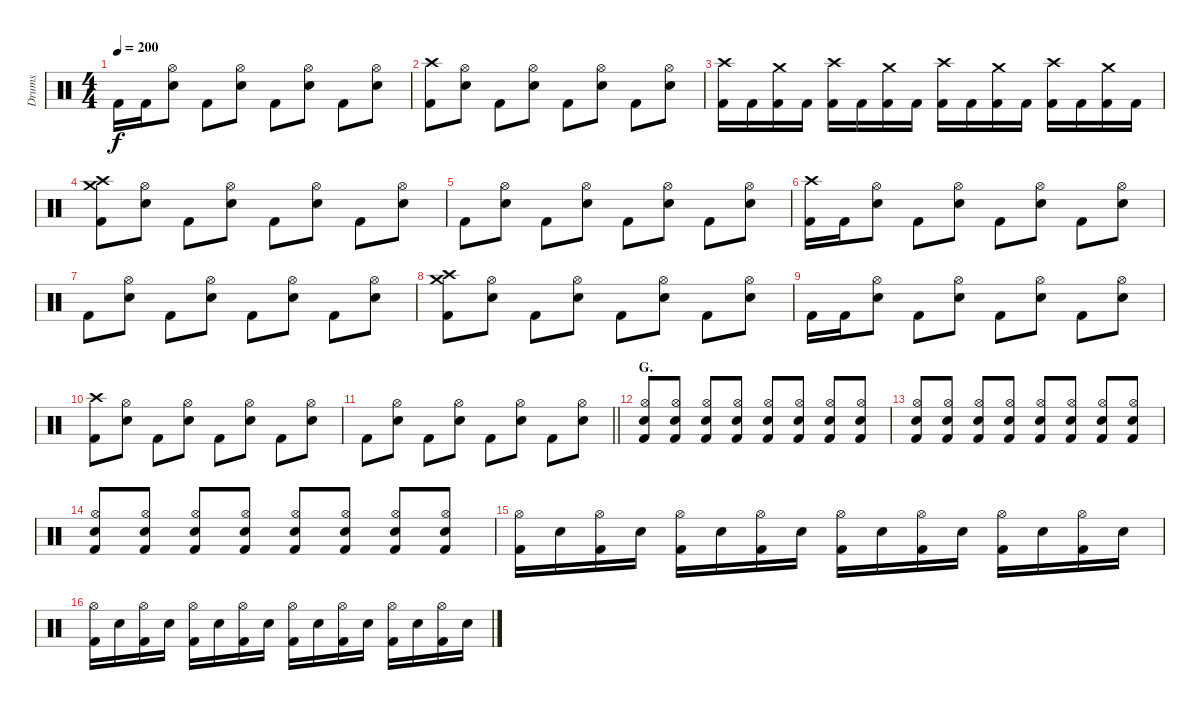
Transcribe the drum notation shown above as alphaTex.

\track ("Drums" "Drums") {instrument percussion}
\staff {score}
\articulation defaults
\ts (4 4)
\tempo 200
\clef neutral
\ks c "Kick (hit) 2".16{dy f} "Kick (hit) 2".16
("Hi-Hat (open)" "Electric Snare (hit)").8 "Kick (hit) 2".8 ("Hi-Hat (open)" "Electric Snare (hit)").8 "Kick (hit) 2".8 ("Hi-Hat (open)" "Electric Snare (hit)").8 "Kick (hit) 2".8 ("Hi-Hat (open)" "Electric Snare (hit)").8 |
("Crash high (hit)" "Kick (hit) 2").8 ("Hi-Hat (open)" "Electric Snare (hit)").8 "Kick (hit) 2".8 ("Hi-Hat (open)" "Electric Snare (hit)").8 "Kick (hit) 2".8 ("Hi-Hat (open)" "Electric Snare (hit)").8 "Kick (hit) 2".8 ("Hi-Hat (open)" "Electric Snare (hit)").8 |
("Crash high (hit)" "Kick (hit) 2").16 "Kick (hit) 2".16 ("Crash medium (hit)" "Kick (hit) 2").16 "Kick (hit) 2".16 ("Crash high (hit)" "Kick (hit) 2").16 "Kick (hit) 2".16 ("Crash medium (hit)" "Kick (hit) 2").16 "Kick (hit) 2".16 ("Crash high (hit)" "Kick (hit) 2").16 "Kick (hit) 2".16 ("Crash medium (hit)" "Kick (hit) 2").16 "Kick (hit) 2".16 ("Crash high (hit)" "Kick (hit) 2").16 "Kick (hit) 2".16 ("Crash medium (hit)" "Kick (hit) 2").16 "Kick (hit) 2".16 |
("Crash medium (hit)" "Crash high (hit)" "Kick (hit) 2").8 ("Hi-Hat (open)" "Electric Snare (hit)").8 "Kick (hit) 2".8 ("Hi-Hat (open)" "Electric Snare (hit)").8 "Kick (hit) 2".8 ("Hi-Hat (open)" "Electric Snare (hit)").8 "Kick (hit) 2".8 ("Hi-Hat (open)" "Electric Snare (hit)").8 |
"Kick (hit) 2".8 ("Hi-Hat (open)" "Electric Snare (hit)").8 "Kick (hit) 2".8 ("Hi-Hat (open)" "Electric Snare (hit)").8 "Kick (hit) 2".8 ("Hi-Hat (open)" "Electric Snare (hit)").8 "Kick (hit) 2".8 ("Hi-Hat (open)" "Electric Snare (hit)").8 |
("Crash high (hit)" "Kick (hit) 2").16 "Kick (hit) 2".16 ("Hi-Hat (open)" "Electric Snare (hit)").8 "Kick (hit) 2".8 ("Hi-Hat (open)" "Electric Snare (hit)").8 "Kick (hit) 2".8 ("Hi-Hat (open)" "Electric Snare (hit)").8 "Kick (hit) 2".8 ("Hi-Hat (open)" "Electric Snare (hit)").8 |
"Kick (hit) 2".8 ("Hi-Hat (open)" "Electric Snare (hit)").8 "Kick (hit) 2".8 ("Hi-Hat (open)" "Electric Snare (hit)").8 "Kick (hit) 2".8 ("Hi-Hat (open)" "Electric Snare (hit)").8 "Kick (hit) 2".8 ("Hi-Hat (open)" "Electric Snare (hit)").8 |
("Crash medium (hit)" "Crash high (hit)" "Kick (hit) 2").8 ("Hi-Hat (open)" "Electric Snare (hit)").8 "Kick (hit) 2".8 ("Hi-Hat (open)" "Electric Snare (hit)").8 "Kick (hit) 2".8 ("Hi-Hat (open)" "Electric Snare (hit)").8 "Kick (hit) 2".8 ("Hi-Hat (open)" "Electric Snare (hit)").8 |
"Kick (hit) 2".16 "Kick (hit) 2".16 ("Hi-Hat (open)" "Electric Snare (hit)").8 "Kick (hit) 2".8 ("Hi-Hat (open)" "Electric Snare (hit)").8 "Kick (hit) 2".8 ("Hi-Hat (open)" "Electric Snare (hit)").8 "Kick (hit) 2".8 ("Hi-Hat (open)" "Electric Snare (hit)").8 |
("Crash high (hit)" "Kick (hit) 2").8 ("Hi-Hat (open)" "Electric Snare (hit)").8 "Kick (hit) 2".8 ("Hi-Hat (open)" "Electric Snare (hit)").8 "Kick (hit) 2".8 ("Hi-Hat (open)" "Electric Snare (hit)").8 "Kick (hit) 2".8 ("Hi-Hat (open)" "Electric Snare (hit)").8 |
\barLineRight lightlight "Kick (hit) 2".8
("Hi-Hat (open)" "Electric Snare (hit)").8 "Kick (hit) 2".8 ("Hi-Hat (open)" "Electric Snare (hit)").8 "Kick (hit) 2".8 ("Hi-Hat (open)" "Electric Snare (hit)").8 "Kick (hit) 2".8 ("Hi-Hat (open)" "Electric Snare (hit)").8 |
\section ("" "G.")
("Hi-Hat (open)" "Electric Snare (hit)" "Kick (hit) 2").8 ("Hi-Hat (open)" "Electric Snare (hit)" "Kick (hit) 2").8 ("Hi-Hat (open)" "Electric Snare (hit)" "Kick (hit) 2").8 ("Hi-Hat (open)" "Electric Snare (hit)" "Kick (hit) 2").8 ("Hi-Hat (open)" "Electric Snare (hit)" "Kick (hit) 2").8 ("Hi-Hat (open)" "Electric Snare (hit)" "Kick (hit) 2").8 ("Hi-Hat (open)" "Electric Snare (hit)" "Kick (hit) 2").8 ("Hi-Hat (open)" "Electric Snare (hit)" "Kick (hit) 2").8 |
("Hi-Hat (open)" "Electric Snare (hit)" "Kick (hit) 2").8 ("Hi-Hat (open)" "Electric Snare (hit)" "Kick (hit) 2").8 ("Hi-Hat (open)" "Electric Snare (hit)" "Kick (hit) 2").8 ("Hi-Hat (open)" "Electric Snare (hit)" "Kick (hit) 2").8 ("Hi-Hat (open)" "Electric Snare (hit)" "Kick (hit) 2").8 ("Hi-Hat (open)" "Electric Snare (hit)" "Kick (hit) 2").8 ("Hi-Hat (open)" "Electric Snare (hit)" "Kick (hit) 2").8 ("Hi-Hat (open)" "Electric Snare (hit)" "Kick (hit) 2").8 |
("Hi-Hat (open)" "Electric Snare (hit)" "Kick (hit) 2").8 ("Hi-Hat (open)" "Electric Snare (hit)" "Kick (hit) 2").8 ("Hi-Hat (open)" "Electric Snare (hit)" "Kick (hit) 2").8 ("Hi-Hat (open)" "Electric Snare (hit)" "Kick (hit) 2").8 ("Hi-Hat (open)" "Electric Snare (hit)" "Kick (hit) 2").8 ("Hi-Hat (open)" "Electric Snare (hit)" "Kick (hit) 2").8 ("Hi-Hat (open)" "Electric Snare (hit)" "Kick (hit) 2").8 ("Hi-Hat (open)" "Electric Snare (hit)" "Kick (hit) 2").8 |
("Hi-Hat (open)" "Kick (hit) 2").16 "Electric Snare (hit)".16 ("Hi-Hat (open)" "Kick (hit) 2").16 "Electric Snare (hit)".16 ("Hi-Hat (open)" "Kick (hit) 2").16 "Electric Snare (hit)".16 ("Hi-Hat (open)" "Kick (hit) 2").16 "Electric Snare (hit)".16 ("Hi-Hat (open)" "Kick (hit) 2").16 "Electric Snare (hit)".16 ("Hi-Hat (open)" "Kick (hit) 2").16 "Electric Snare (hit)".16 ("Hi-Hat (open)" "Kick (hit) 2").16 "Electric Snare (hit)".16 ("Hi-Hat (open)" "Kick (hit) 2").16 "Electric Snare (hit)".16 |
("Hi-Hat (open)" "Kick (hit) 2").16 "Electric Snare (hit)".16 ("Hi-Hat (open)" "Kick (hit) 2").16 "Electric Snare (hit)".16 ("Hi-Hat (open)" "Kick (hit) 2").16 "Electric Snare (hit)".16 ("Hi-Hat (open)" "Kick (hit) 2").16 "Electric Snare (hit)".16 ("Hi-Hat (open)" "Kick (hit) 2").16 "Electric Snare (hit)".16 ("Hi-Hat (open)" "Kick (hit) 2").16 "Electric Snare (hit)".16 ("Hi-Hat (open)" "Kick (hit) 2").16 "Electric Snare (hit)".16 ("Hi-Hat (open)" "Kick (hit) 2").16 "Electric Snare (hit)".16
